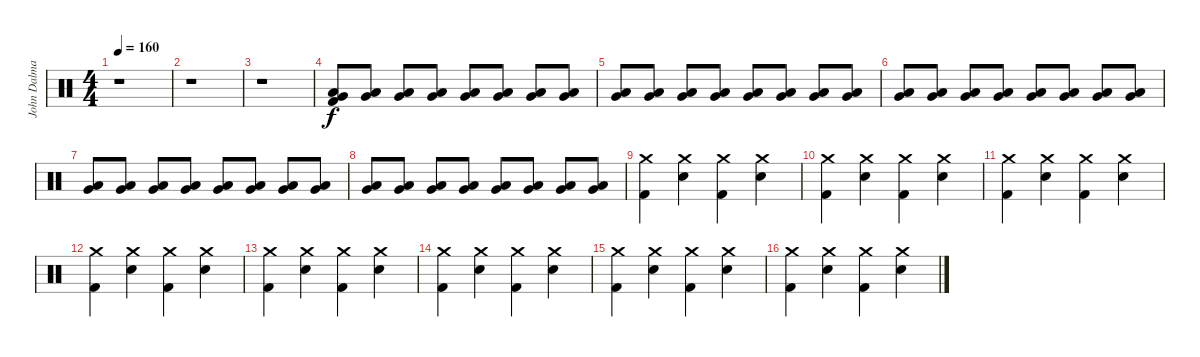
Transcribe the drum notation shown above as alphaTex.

\track ("John Dalmayian - Drums" "John Dalma") {instrument percussion}
\staff {score}
\articulation defaults
\ts (4 4)
\tempo 160
\clef neutral
\ks c
r.1{dy ppp} |
r.1 |
r.1{volume 1} |
("Low Tom (hit)" "Very Low Tom (hit)" "Kick (hit) 2").8{dy f volume 6} ("Low Tom (hit)" "Very Low Tom (hit)").8 ("Low Tom (hit)" "Very Low Tom (hit)").8 ("Low Tom (hit)" "Very Low Tom (hit)").8 ("Low Tom (hit)" "Very Low Tom (hit)").8 ("Low Tom (hit)" "Very Low Tom (hit)").8 ("Low Tom (hit)" "Very Low Tom (hit)").8 ("Low Tom (hit)" "Very Low Tom (hit)").8 |
("Low Tom (hit)" "Very Low Tom (hit)").8 ("Low Tom (hit)" "Very Low Tom (hit)").8 ("Low Tom (hit)" "Very Low Tom (hit)").8 ("Low Tom (hit)" "Very Low Tom (hit)").8 ("Low Tom (hit)" "Very Low Tom (hit)").8 ("Low Tom (hit)" "Very Low Tom (hit)").8 ("Low Tom (hit)" "Very Low Tom (hit)").8 ("Low Tom (hit)" "Very Low Tom (hit)").8 |
("Low Tom (hit)" "Very Low Tom (hit)").8 ("Low Tom (hit)" "Very Low Tom (hit)").8 ("Low Tom (hit)" "Very Low Tom (hit)").8 ("Low Tom (hit)" "Very Low Tom (hit)").8 ("Low Tom (hit)" "Very Low Tom (hit)").8 ("Low Tom (hit)" "Very Low Tom (hit)").8 ("Low Tom (hit)" "Very Low Tom (hit)").8 ("Low Tom (hit)" "Very Low Tom (hit)").8 |
("Low Tom (hit)" "Very Low Tom (hit)").8 ("Low Tom (hit)" "Very Low Tom (hit)").8 ("Low Tom (hit)" "Very Low Tom (hit)").8 ("Low Tom (hit)" "Very Low Tom (hit)").8 ("Low Tom (hit)" "Very Low Tom (hit)").8 ("Low Tom (hit)" "Very Low Tom (hit)").8 ("Low Tom (hit)" "Very Low Tom (hit)").8 ("Low Tom (hit)" "Very Low Tom (hit)").8 |
("Low Tom (hit)" "Very Low Tom (hit)").8{volume 13} ("Low Tom (hit)" "Very Low Tom (hit)").8 ("Low Tom (hit)" "Very Low Tom (hit)").8 ("Low Tom (hit)" "Very Low Tom (hit)").8 ("Low Tom (hit)" "Very Low Tom (hit)").8 ("Low Tom (hit)" "Very Low Tom (hit)").8 ("Low Tom (hit)" "Very Low Tom (hit)").8 ("Low Tom (hit)" "Very Low Tom (hit)").8 |
("Crash medium (hit)" "Kick (hit) 2").4 ("Crash medium (hit)" "Snare (hit) 2").4 ("Crash medium (hit)" "Kick (hit) 2").4 ("Crash medium (hit)" "Snare (hit) 2").4 |
("Crash medium (hit)" "Kick (hit) 2").4 ("Crash medium (hit)" "Snare (hit) 2").4 ("Crash medium (hit)" "Kick (hit) 2").4 ("Crash medium (hit)" "Snare (hit) 2").4 |
("Crash medium (hit)" "Kick (hit) 2").4 ("Crash medium (hit)" "Snare (hit) 2").4 ("Crash medium (hit)" "Kick (hit) 2").4 ("Crash medium (hit)" "Snare (hit) 2").4 |
("Crash medium (hit)" "Kick (hit) 2").4 ("Crash medium (hit)" "Snare (hit) 2").4 ("Crash medium (hit)" "Kick (hit) 2").4 ("Crash medium (hit)" "Snare (hit) 2").4 |
("Crash medium (hit)" "Kick (hit) 2").4 ("Crash medium (hit)" "Snare (hit) 2").4 ("Crash medium (hit)" "Kick (hit) 2").4 ("Crash medium (hit)" "Snare (hit) 2").4 |
("Crash medium (hit)" "Kick (hit) 2").4 ("Crash medium (hit)" "Snare (hit) 2").4 ("Crash medium (hit)" "Kick (hit) 2").4 ("Crash medium (hit)" "Snare (hit) 2").4 |
("Crash medium (hit)" "Kick (hit) 2").4 ("Crash medium (hit)" "Snare (hit) 2").4 ("Crash medium (hit)" "Kick (hit) 2").4 ("Crash medium (hit)" "Snare (hit) 2").4 |
("Crash medium (hit)" "Kick (hit) 2").4 ("Crash medium (hit)" "Snare (hit) 2").4 ("Crash medium (hit)" "Kick (hit) 2").4 ("Crash medium (hit)" "Snare (hit) 2").4
